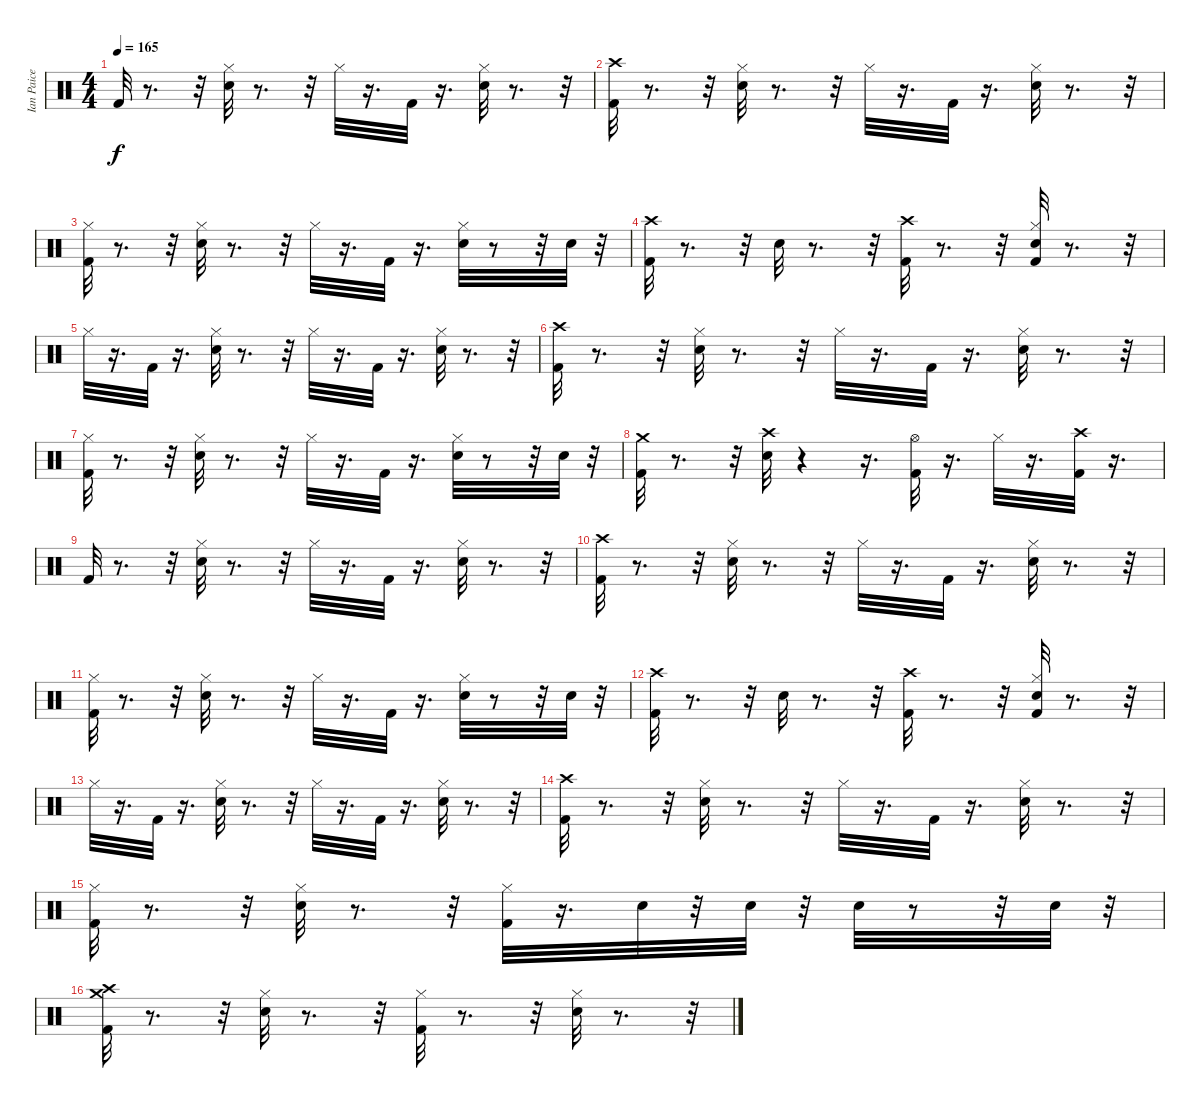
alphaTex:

\track ("Ian Paice" "Ian Paice") {instrument percussion}
\staff {score}
\articulation defaults
\ts (4 4)
\tempo 165
\clef neutral
\ks c "Kick (hit) 2".32{dy f}
r.8{d} r.32 ("Hi-Hat (closed)" "Snare (hit) 2").32 r.8{d} r.32 "Hi-Hat (closed)".32 r.16{d} "Kick (hit) 2".32 r.16{d} ("Hi-Hat (closed)" "Snare (hit) 2").32 r.8{d} r.32 |
("Crash high (hit)" "Kick (hit) 2").32 r.8{d} r.32 ("Hi-Hat (closed)" "Snare (hit) 2").32 r.8{d} r.32 "Hi-Hat (closed)".32 r.16{d} "Kick (hit) 2".32 r.16{d} ("Hi-Hat (closed)" "Snare (hit) 2").32 r.8{d} r.32 |
("Kick (hit) 2" "Hi-Hat (closed)").32 r.8{d} r.32 ("Snare (hit) 2" "Hi-Hat (closed)").32 r.8{d} r.32 "Hi-Hat (closed)".32 r.16{d} "Kick (hit) 2".32 r.16{d} ("Snare (hit) 2" "Hi-Hat (closed)").32 r.8 r.32 "Snare (hit) 2".32 r.32 |
("Crash high (hit)" "Kick (hit) 2").32 r.8{d} r.32 "Snare (hit) 2".32 r.8{d} r.32 ("Kick (hit) 2" "Crash high (hit)").32 r.8{d} r.32 ("Hi-Hat (closed)" "Snare (hit) 2" "Kick (hit) 2").32 r.8{d} r.32 |
"Hi-Hat (closed)".32 r.16{d} "Kick (hit) 2".32 r.16{d} ("Snare (hit) 2" "Hi-Hat (closed)").32 r.8{d} r.32 "Hi-Hat (closed)".32 r.16{d} "Kick (hit) 2".32 r.16{d} ("Snare (hit) 2" "Hi-Hat (closed)").32 r.8{d} r.32 |
("Kick (hit) 2" "Crash high (hit)").32 r.8{d} r.32 ("Hi-Hat (closed)" "Snare (hit) 2").32 r.8{d} r.32 "Hi-Hat (closed)".32 r.16{d} "Kick (hit) 2".32 r.16{d} ("Hi-Hat (closed)" "Snare (hit) 2").32 r.8{d} r.32 |
("Hi-Hat (closed)" "Kick (hit) 2").32 r.8{d} r.32 ("Hi-Hat (closed)" "Snare (hit) 2").32 r.8{d} r.32 "Hi-Hat (closed)".32 r.16{d} "Kick (hit) 2".32 r.16{d} ("Hi-Hat (closed)" "Snare (hit) 2").32 r.8 r.32 "Snare (hit) 2".32 r.32 |
("Crash medium (hit)" "Kick (hit) 2").32 r.8{d} r.32 ("Snare (hit) 2" "Crash high (hit)").32 r.4 r.16{d} ("Hi-Hat (open)" "Kick (hit) 2").32 r.16{d} "Hi-Hat (closed)".32 r.16{d} ("Crash high (hit)" "Kick (hit) 2").32 r.16{d} |
"Kick (hit) 2".32 r.8{d} r.32 ("Hi-Hat (closed)" "Snare (hit) 2").32 r.8{d} r.32 "Hi-Hat (closed)".32 r.16{d} "Kick (hit) 2".32 r.16{d} ("Hi-Hat (closed)" "Snare (hit) 2").32 r.8{d} r.32 |
("Crash high (hit)" "Kick (hit) 2").32 r.8{d} r.32 ("Hi-Hat (closed)" "Snare (hit) 2").32 r.8{d} r.32 "Hi-Hat (closed)".32 r.16{d} "Kick (hit) 2".32 r.16{d} ("Hi-Hat (closed)" "Snare (hit) 2").32 r.8{d} r.32 |
("Kick (hit) 2" "Hi-Hat (closed)").32 r.8{d} r.32 ("Snare (hit) 2" "Hi-Hat (closed)").32 r.8{d} r.32 "Hi-Hat (closed)".32 r.16{d} "Kick (hit) 2".32 r.16{d} ("Snare (hit) 2" "Hi-Hat (closed)").32 r.8 r.32 "Snare (hit) 2".32 r.32 |
("Crash high (hit)" "Kick (hit) 2").32 r.8{d} r.32 "Snare (hit) 2".32 r.8{d} r.32 ("Kick (hit) 2" "Crash high (hit)").32 r.8{d} r.32 ("Hi-Hat (closed)" "Snare (hit) 2" "Kick (hit) 2").32 r.8{d} r.32 |
"Hi-Hat (closed)".32 r.16{d} "Kick (hit) 2".32 r.16{d} ("Snare (hit) 2" "Hi-Hat (closed)").32 r.8{d} r.32 "Hi-Hat (closed)".32 r.16{d} "Kick (hit) 2".32 r.16{d} ("Snare (hit) 2" "Hi-Hat (closed)").32 r.8{d} r.32 |
("Kick (hit) 2" "Crash high (hit)").32 r.8{d} r.32 ("Hi-Hat (closed)" "Snare (hit) 2").32 r.8{d} r.32 "Hi-Hat (closed)".32 r.16{d} "Kick (hit) 2".32 r.16{d} ("Hi-Hat (closed)" "Snare (hit) 2").32 r.8{d} r.32 |
("Hi-Hat (closed)" "Kick (hit) 2").32 r.8{d} r.32 ("Hi-Hat (closed)" "Snare (hit) 2").32 r.8{d} r.32 ("Kick (hit) 2" "Hi-Hat (closed)").32 r.16{d} "Snare (hit) 2".32 r.32 "Snare (hit) 2".32 r.32 "Snare (hit) 2".32 r.8 r.32 "Snare (hit) 2".32 r.32 |
("Crash medium (hit)" "Kick (hit) 2" "Crash high (hit)").32 r.8{d} r.32 ("Hi-Hat (closed)" "Snare (hit) 2").32 r.8{d} r.32 ("Hi-Hat (closed)" "Kick (hit) 2").32 r.8{d} r.32 ("Hi-Hat (closed)" "Snare (hit) 2").32 r.8{d} r.32
